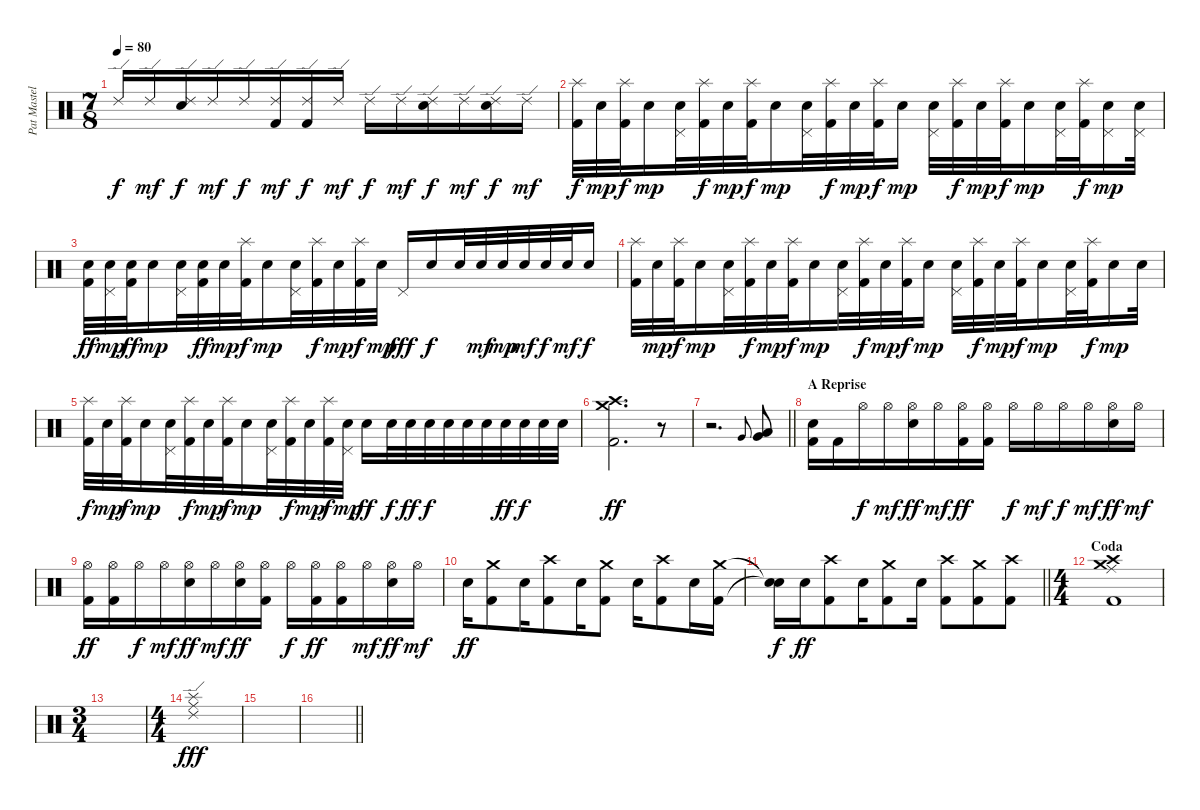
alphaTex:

\track ("Pat Mastelotto (Traps / Buttons)" "Pat Mastel") {instrument percussion}
\staff {score}
\articulation defaults
\ts (7 8)
\tempo 80
\clef neutral
\ks c "Ride (edge) 2".16{dy f} "Ride (edge) 2".16{dy mf}
("Ride (edge) 2" "Electric Snare (hit)").16{dy f} "Ride (edge) 2".16{dy mf} "Ride (edge) 2".16{dy f} ("Ride (edge) 2" "Kick (hit) 2").16{dy mf} ("Ride (edge) 2" "Kick (hit) 2").16{dy f} "Ride (edge) 2".16{dy mf} "Ride (edge) 2".16{dy f} "Ride (edge) 2".16{dy mf} ("Ride (edge) 2" "Electric Snare (hit)").16{dy f} "Ride (edge) 2".16{dy mf} ("Ride (edge) 2" "Electric Snare (hit)").16{dy f} "Ride (edge) 2".16{dy mf} |
("Splash (hit)" "Kick (hit) 2").32{dy f} "Electric Snare (hit)".32{dy mp} ("Splash (hit)" "Kick (hit) 2").32{dy f} "Electric Snare (hit)".16{dy mp} ("Pedal Hi-Hat (hit)" "Electric Snare (hit)").32 ("Splash (hit)" "Kick (hit) 2").32{dy f} "Electric Snare (hit)".32{dy mp} ("Splash (hit)" "Kick (hit) 2").32{dy f} "Electric Snare (hit)".16{dy mp} ("Pedal Hi-Hat (hit)" "Electric Snare (hit)").32 ("Splash (hit)" "Kick (hit) 2").32{dy f} "Electric Snare (hit)".32{dy mp} ("Splash (hit)" "Kick (hit) 2").32{dy f} "Electric Snare (hit)".16{dy mp} ("Pedal Hi-Hat (hit)" "Electric Snare (hit)").32 ("Splash (hit)" "Kick (hit) 2").32{dy f} "Electric Snare (hit)".32{dy mp} ("Splash (hit)" "Kick (hit) 2").32{dy f} "Electric Snare (hit)".16{dy mp} ("Pedal Hi-Hat (hit)" "Electric Snare (hit)").32 ("Splash (hit)" "Kick (hit) 2").32{dy f} ("Pedal Hi-Hat (hit)" "Electric Snare (hit)").16{dy mp} ("Pedal Hi-Hat (hit)" "Electric Snare (hit)").32 |
("Electric Snare (hit)" "Kick (hit) 2").32{dy ff} ("Pedal Hi-Hat (hit)" "Electric Snare (hit)").32{dy mp} ("Electric Snare (hit)" "Kick (hit) 2").32{dy ff} "Electric Snare (hit)".16{dy mp} ("Pedal Hi-Hat (hit)" "Electric Snare (hit)").32 ("Electric Snare (hit)" "Kick (hit) 2").32{dy ff} "Electric Snare (hit)".32{dy mp} ("Splash (hit)" "Kick (hit) 2").32{dy f} "Electric Snare (hit)".16{dy mp} ("Pedal Hi-Hat (hit)" "Electric Snare (hit)").32 ("Splash (hit)" "Kick (hit) 2").32{dy f} "Electric Snare (hit)".32{dy mp} ("Splash (hit)" "Kick (hit) 2").32{dy f} "Electric Snare (hit)".32{dy mp} "Pedal Hi-Hat (hit)".16{dy fff} "Electric Snare (hit)".16{dy f} "Electric Snare (hit)".32 "Electric Snare (hit)".32{dy mf} "Electric Snare (hit)".32{dy mp} "Electric Snare (hit)".32{dy mf} "Electric Snare (hit)".32{dy f} "Electric Snare (hit)".32{dy mf} "Electric Snare (hit)".16{dy f} |
("Splash (hit)" "Kick (hit) 2").32 "Electric Snare (hit)".32{dy mp} ("Splash (hit)" "Kick (hit) 2").32{dy f} "Electric Snare (hit)".16{dy mp} ("Pedal Hi-Hat (hit)" "Electric Snare (hit)").32 ("Splash (hit)" "Kick (hit) 2").32{dy f} "Electric Snare (hit)".32{dy mp} ("Splash (hit)" "Kick (hit) 2").32{dy f} "Electric Snare (hit)".16{dy mp} ("Pedal Hi-Hat (hit)" "Electric Snare (hit)").32 ("Splash (hit)" "Kick (hit) 2").32{dy f} "Electric Snare (hit)".32{dy mp} ("Splash (hit)" "Kick (hit) 2").32{dy f} "Electric Snare (hit)".16{dy mp} ("Pedal Hi-Hat (hit)" "Electric Snare (hit)").32 ("Splash (hit)" "Kick (hit) 2").32{dy f} "Electric Snare (hit)".32{dy mp} ("Splash (hit)" "Kick (hit) 2").32{dy f} "Electric Snare (hit)".16{dy mp} ("Pedal Hi-Hat (hit)" "Electric Snare (hit)").32 ("Splash (hit)" "Kick (hit) 2").32{dy f} "Electric Snare (hit)".16{dy mp} "Electric Snare (hit)".32 |
("Splash (hit)" "Kick (hit) 2").32{dy f} "Electric Snare (hit)".32{dy mp} ("Splash (hit)" "Kick (hit) 2").32{dy f} "Electric Snare (hit)".16{dy mp} ("Pedal Hi-Hat (hit)" "Electric Snare (hit)").32 ("Splash (hit)" "Kick (hit) 2").32{dy f} "Electric Snare (hit)".32{dy mp} ("Splash (hit)" "Kick (hit) 2").32{dy f} "Electric Snare (hit)".16{dy mp} ("Pedal Hi-Hat (hit)" "Electric Snare (hit)").32 ("Splash (hit)" "Kick (hit) 2").32{dy f} "Electric Snare (hit)".32{dy mp} ("Splash (hit)" "Kick (hit) 2").32{dy f} ("Pedal Hi-Hat (hit)" "Electric Snare (hit)").32{dy mp} "Electric Snare (hit)".16{dy ff} "Electric Snare (hit)".32{dy f} "Electric Snare (hit)".32{dy ff} "Electric Snare (hit)".32{dy f} "Electric Snare (hit)".32 "Electric Snare (hit)".32 "Electric Snare (hit)".32 "Electric Snare (hit)".32{dy ff} "Electric Snare (hit)".32{dy f} "Electric Snare (hit)".32 "Electric Snare (hit)".32 |
("Crash medium (hit)" "Crash high (hit)" "Kick (hit) 2").2{d dy ff} r.8 |
\barLineRight lightlight
r.2{d} "Very Low Tom (hit)".8{gr onbeat} ("Very Low Tom (hit)" "Low Floor Tom (hit)").8 |
\section ("" "A Reprise")
("Metronome (bell)" "Kick (hit) 2").16 "Kick (hit) 2".16 "Hi-Hat (open)".16{dy f} "Hi-Hat (open)".16{dy mf} ("Hi-Hat (open)" "Electric Snare (hit)").16{dy ff} "Hi-Hat (open)".16{dy mf} ("Hi-Hat (open)" "Kick (hit) 2").16{dy ff} ("Hi-Hat (open)" "Kick (hit) 2").16 "Hi-Hat (open)".16{dy f} "Hi-Hat (open)".16{dy mf} "Hi-Hat (open)".16{dy f} "Hi-Hat (open)".16{dy mf} ("Hi-Hat (open)" "Electric Snare (hit)").16{dy ff} "Hi-Hat (open)".16{dy mf} |
("Hi-Hat (open)" "Kick (hit) 2").16{dy ff} ("Hi-Hat (open)" "Kick (hit) 2").16 "Hi-Hat (open)".16{dy f} "Hi-Hat (open)".16{dy mf} ("Hi-Hat (open)" "Electric Snare (hit)").16{dy ff} "Hi-Hat (open)".16{dy mf} ("Hi-Hat (open)" "Electric Snare (hit)").16{dy ff} ("Hi-Hat (open)" "Kick (hit) 2").16 "Hi-Hat (open)".16{dy f} ("Hi-Hat (open)" "Kick (hit) 2").16{dy ff} ("Hi-Hat (open)" "Kick (hit) 2").16 "Hi-Hat (open)".16{dy mf} ("Hi-Hat (open)" "Electric Snare (hit)").16{dy ff} "Hi-Hat (open)".16{dy mf} |
"Electric Snare (hit)".16{dy ff} ("Crash medium (hit)" "Kick (hit) 2").8 "Electric Snare (hit)".16 ("Crash high (hit)" "Kick (hit) 2").8 "Electric Snare (hit)".16 ("Crash medium (hit)" "Kick (hit) 2").8 "Electric Snare (hit)".16 ("Crash high (hit)" "Kick (hit) 2").8 "Electric Snare (hit)".16 ("Crash medium (hit)" "Kick (hit) 2").16 |
\barLineRight lightlight
("Snare (hit)"{t} "Snare (hit)"{t}).16{dy f} "Electric Snare (hit)".16{dy ff} ("Crash high (hit)" "Kick (hit) 2").8 "Electric Snare (hit)".16 ("Crash medium (hit)" "Kick (hit) 2").8 "Electric Snare (hit)".16 ("Crash high (hit)" "Kick (hit) 2").8 ("Crash medium (hit)" "Kick (hit) 2").8 ("Crash high (hit)" "Kick (hit) 2").8 |
\ts (4 4)
\section ("" "Coda")
("Crash medium (hit)" "Crash high (hit)" "Ride (middle)" "Kick (hit) 2").1 |
\ts (3 4)
|
\ts (4 4)
("Ride (middle)" "Splash (hit)" "Ride (edge) 2").1{dy fff} |
|
\barLineRight lightlight
